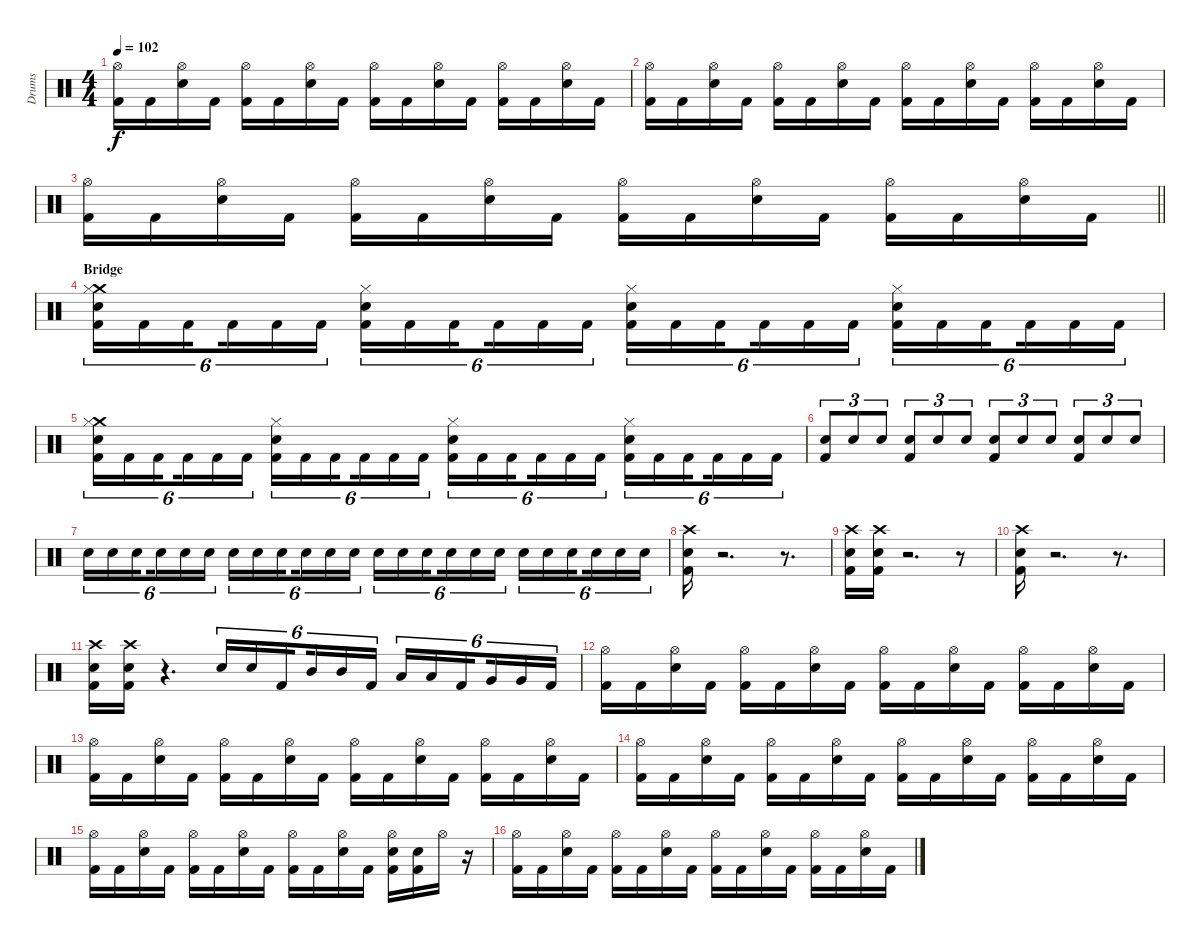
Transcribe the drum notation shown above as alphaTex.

\track ("Drums" "Drums") {instrument percussion}
\staff {score}
\articulation defaults
\ts (4 4)
\tempo 102
\clef neutral
\ks c
("Hi-Hat (open)" "Kick (hit) 2").16{dy f} "Kick (hit) 2".16 ("Hi-Hat (open)" "Snare (hit) 2").16 "Kick (hit) 2".16 ("Hi-Hat (open)" "Kick (hit) 2").16 "Kick (hit) 2".16 ("Hi-Hat (open)" "Snare (hit) 2").16 "Kick (hit) 2".16 ("Hi-Hat (open)" "Kick (hit) 2").16 "Kick (hit) 2".16 ("Hi-Hat (open)" "Snare (hit) 2").16 "Kick (hit) 2".16 ("Hi-Hat (open)" "Kick (hit) 2").16 "Kick (hit) 2".16 ("Hi-Hat (open)" "Snare (hit) 2").16 "Kick (hit) 2".16 |
("Hi-Hat (open)" "Kick (hit) 2").16 "Kick (hit) 2".16 ("Hi-Hat (open)" "Snare (hit) 2").16 "Kick (hit) 2".16 ("Hi-Hat (open)" "Kick (hit) 2").16 "Kick (hit) 2".16 ("Hi-Hat (open)" "Snare (hit) 2").16 "Kick (hit) 2".16 ("Hi-Hat (open)" "Kick (hit) 2").16 "Kick (hit) 2".16 ("Hi-Hat (open)" "Snare (hit) 2").16 "Kick (hit) 2".16 ("Hi-Hat (open)" "Kick (hit) 2").16 "Kick (hit) 2".16 ("Hi-Hat (open)" "Snare (hit) 2").16 "Kick (hit) 2".16 |
\barLineRight lightlight
("Hi-Hat (open)" "Kick (hit) 2").16 "Kick (hit) 2".16 ("Hi-Hat (open)" "Snare (hit) 2").16 "Kick (hit) 2".16 ("Hi-Hat (open)" "Kick (hit) 2").16 "Kick (hit) 2".16 ("Hi-Hat (open)" "Snare (hit) 2").16 "Kick (hit) 2".16 ("Hi-Hat (open)" "Kick (hit) 2").16 "Kick (hit) 2".16 ("Hi-Hat (open)" "Snare (hit) 2").16 "Kick (hit) 2".16 ("Hi-Hat (open)" "Kick (hit) 2").16 "Kick (hit) 2".16 ("Hi-Hat (open)" "Snare (hit) 2").16 "Kick (hit) 2".16 |
\section ("" "Bridge")
("Crash medium (hit)" "Hi-Hat (closed)" "Snare (hit) 2" "Kick (hit) 2").16{tu (6 4)} "Kick (hit) 2".16{tu (6 4)} "Kick (hit) 2".16{tu (6 4) beam splitsecondary} "Kick (hit) 2".16{tu (6 4)} "Kick (hit) 2".16{tu (6 4)} "Kick (hit) 2".16{tu (6 4)} ("Hi-Hat (closed)" "Snare (hit) 2" "Kick (hit) 2").16{tu (6 4)} "Kick (hit) 2".16{tu (6 4)} "Kick (hit) 2".16{tu (6 4) beam splitsecondary} "Kick (hit) 2".16{tu (6 4)} "Kick (hit) 2".16{tu (6 4)} "Kick (hit) 2".16{tu (6 4)} ("Hi-Hat (closed)" "Snare (hit) 2" "Kick (hit) 2").16{tu (6 4)} "Kick (hit) 2".16{tu (6 4)} "Kick (hit) 2".16{tu (6 4) beam splitsecondary} "Kick (hit) 2".16{tu (6 4)} "Kick (hit) 2".16{tu (6 4)} "Kick (hit) 2".16{tu (6 4)} ("Hi-Hat (closed)" "Snare (hit) 2" "Kick (hit) 2").16{tu (6 4)} "Kick (hit) 2".16{tu (6 4)} "Kick (hit) 2".16{tu (6 4) beam splitsecondary} "Kick (hit) 2".16{tu (6 4)} "Kick (hit) 2".16{tu (6 4)} "Kick (hit) 2".16{tu (6 4)} |
("Crash medium (hit)" "Hi-Hat (closed)" "Snare (hit) 2" "Kick (hit) 2").16{tu (6 4)} "Kick (hit) 2".16{tu (6 4)} "Kick (hit) 2".16{tu (6 4) beam splitsecondary} "Kick (hit) 2".16{tu (6 4)} "Kick (hit) 2".16{tu (6 4)} "Kick (hit) 2".16{tu (6 4)} ("Hi-Hat (closed)" "Snare (hit) 2" "Kick (hit) 2").16{tu (6 4)} "Kick (hit) 2".16{tu (6 4)} "Kick (hit) 2".16{tu (6 4) beam splitsecondary} "Kick (hit) 2".16{tu (6 4)} "Kick (hit) 2".16{tu (6 4)} "Kick (hit) 2".16{tu (6 4)} ("Hi-Hat (closed)" "Snare (hit) 2" "Kick (hit) 2").16{tu (6 4)} "Kick (hit) 2".16{tu (6 4)} "Kick (hit) 2".16{tu (6 4) beam splitsecondary} "Kick (hit) 2".16{tu (6 4)} "Kick (hit) 2".16{tu (6 4)} "Kick (hit) 2".16{tu (6 4)} ("Hi-Hat (closed)" "Snare (hit) 2" "Kick (hit) 2").16{tu (6 4)} "Kick (hit) 2".16{tu (6 4)} "Kick (hit) 2".16{tu (6 4) beam splitsecondary} "Kick (hit) 2".16{tu (6 4)} "Kick (hit) 2".16{tu (6 4)} "Kick (hit) 2".16{tu (6 4)} |
("Kick (hit) 2" "Snare (hit) 2").8{tu (3 2)} "Snare (hit) 2".8{tu (3 2)} "Snare (hit) 2".8{tu (3 2)} ("Kick (hit) 2" "Snare (hit) 2").8{tu (3 2)} "Snare (hit) 2".8{tu (3 2)} "Snare (hit) 2".8{tu (3 2)} ("Kick (hit) 2" "Snare (hit) 2").8{tu (3 2)} "Snare (hit) 2".8{tu (3 2)} "Snare (hit) 2".8{tu (3 2)} ("Kick (hit) 2" "Snare (hit) 2").8{tu (3 2)} "Snare (hit) 2".8{tu (3 2)} "Snare (hit) 2".8{tu (3 2)} |
"Snare (hit) 2".16{tu (6 4)} "Snare (hit) 2".16{tu (6 4)} "Snare (hit) 2".16{tu (6 4) beam splitsecondary} "Snare (hit) 2".16{tu (6 4)} "Snare (hit) 2".16{tu (6 4)} "Snare (hit) 2".16{tu (6 4)} "Snare (hit) 2".16{tu (6 4)} "Snare (hit) 2".16{tu (6 4)} "Snare (hit) 2".16{tu (6 4) beam splitsecondary} "Snare (hit) 2".16{tu (6 4)} "Snare (hit) 2".16{tu (6 4)} "Snare (hit) 2".16{tu (6 4)} "Snare (hit) 2".16{tu (6 4)} "Snare (hit) 2".16{tu (6 4)} "Snare (hit) 2".16{tu (6 4) beam splitsecondary} "Snare (hit) 2".16{tu (6 4)} "Snare (hit) 2".16{tu (6 4)} "Snare (hit) 2".16{tu (6 4)} "Snare (hit) 2".16{tu (6 4)} "Snare (hit) 2".16{tu (6 4)} "Snare (hit) 2".16{tu (6 4) beam splitsecondary} "Snare (hit) 2".16{tu (6 4)} "Snare (hit) 2".16{tu (6 4)} "Snare (hit) 2".16{tu (6 4)} |
("Snare (hit) 2" "Crash high (hit)" "Kick (hit) 2").16 r.2{d} r.8{d} |
("Crash high (hit)" "Kick (hit) 2" "Snare (hit) 2").16 ("Crash high (hit)" "Kick (hit) 2" "Snare (hit) 2").16 r.2{d} r.8 |
("Snare (hit) 2" "Crash high (hit)" "Kick (hit) 2").16 r.2{d} r.8{d} |
("Crash high (hit)" "Kick (hit) 2" "Snare (hit) 2").16 ("Crash high (hit)" "Kick (hit) 2" "Snare (hit) 2").16 r.4{d} "Snare (hit) 2".16{tu (6 4)} "Snare (hit) 2".16{tu (6 4)} "Kick (hit) 2".16{tu (6 4) beam splitsecondary} "Mid Tom (hit)".16{tu (6 4)} "Mid Tom (hit)".16{tu (6 4)} "Kick (hit) 2".16{tu (6 4)} "Low Tom (hit)".16{tu (6 4)} "Low Tom (hit)".16{tu (6 4)} "Kick (hit) 2".16{tu (6 4) beam splitsecondary} "Very Low Tom (hit)".16{tu (6 4)} "Very Low Tom (hit)".16{tu (6 4)} "Kick (hit) 2".16{tu (6 4)} |
("Hi-Hat (open)" "Kick (hit) 2").16 "Kick (hit) 2".16 ("Hi-Hat (open)" "Snare (hit) 2").16 "Kick (hit) 2".16 ("Hi-Hat (open)" "Kick (hit) 2").16 "Kick (hit) 2".16 ("Hi-Hat (open)" "Snare (hit) 2").16 "Kick (hit) 2".16 ("Hi-Hat (open)" "Kick (hit) 2").16 "Kick (hit) 2".16 ("Hi-Hat (open)" "Snare (hit) 2").16 "Kick (hit) 2".16 ("Hi-Hat (open)" "Kick (hit) 2").16 "Kick (hit) 2".16 ("Hi-Hat (open)" "Snare (hit) 2").16 "Kick (hit) 2".16 |
("Hi-Hat (open)" "Kick (hit) 2").16 "Kick (hit) 2".16 ("Hi-Hat (open)" "Snare (hit) 2").16 "Kick (hit) 2".16 ("Hi-Hat (open)" "Kick (hit) 2").16 "Kick (hit) 2".16 ("Hi-Hat (open)" "Snare (hit) 2").16 "Kick (hit) 2".16 ("Hi-Hat (open)" "Kick (hit) 2").16 "Kick (hit) 2".16 ("Hi-Hat (open)" "Snare (hit) 2").16 "Kick (hit) 2".16 ("Hi-Hat (open)" "Kick (hit) 2").16 "Kick (hit) 2".16 ("Hi-Hat (open)" "Snare (hit) 2").16 "Kick (hit) 2".16 |
("Hi-Hat (open)" "Kick (hit) 2").16 "Kick (hit) 2".16 ("Hi-Hat (open)" "Snare (hit) 2").16 "Kick (hit) 2".16 ("Hi-Hat (open)" "Kick (hit) 2").16 "Kick (hit) 2".16 ("Hi-Hat (open)" "Snare (hit) 2").16 "Kick (hit) 2".16 ("Hi-Hat (open)" "Kick (hit) 2").16 "Kick (hit) 2".16 ("Hi-Hat (open)" "Snare (hit) 2").16 "Kick (hit) 2".16 ("Hi-Hat (open)" "Kick (hit) 2").16 "Kick (hit) 2".16 ("Hi-Hat (open)" "Snare (hit) 2").16 "Kick (hit) 2".16 |
("Hi-Hat (open)" "Kick (hit) 2").16 "Kick (hit) 2".16 ("Hi-Hat (open)" "Snare (hit) 2").16 "Kick (hit) 2".16 ("Hi-Hat (open)" "Kick (hit) 2").16 "Kick (hit) 2".16 ("Hi-Hat (open)" "Snare (hit) 2").16 "Kick (hit) 2".16 ("Hi-Hat (open)" "Kick (hit) 2").16 "Kick (hit) 2".16 ("Hi-Hat (open)" "Snare (hit) 2").16 "Kick (hit) 2".16 ("Hi-Hat (open)" "Snare (hit) 2" "Kick (hit) 2").16 ("Snare (hit) 2" "Kick (hit) 2").16 "Hi-Hat (open)".16 r.16 |
("Hi-Hat (open)" "Kick (hit) 2").16 "Kick (hit) 2".16 ("Hi-Hat (open)" "Snare (hit) 2").16 "Kick (hit) 2".16 ("Hi-Hat (open)" "Kick (hit) 2").16 "Kick (hit) 2".16 ("Hi-Hat (open)" "Snare (hit) 2").16 "Kick (hit) 2".16 ("Hi-Hat (open)" "Kick (hit) 2").16 "Kick (hit) 2".16 ("Hi-Hat (open)" "Snare (hit) 2").16 "Kick (hit) 2".16 ("Hi-Hat (open)" "Kick (hit) 2").16 "Kick (hit) 2".16 ("Hi-Hat (open)" "Snare (hit) 2").16 "Kick (hit) 2".16
